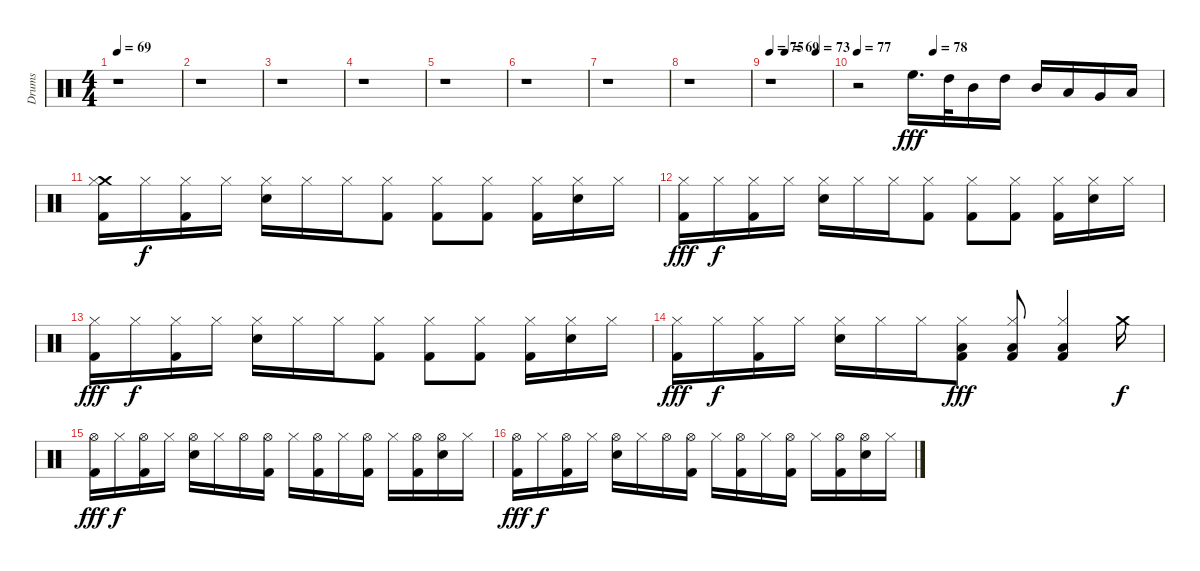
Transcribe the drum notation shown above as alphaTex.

\track ("Drums" "Drums") {instrument percussion}
\staff {score}
\articulation defaults
\ts (4 4)
\tempo 69
\clef neutral
\ks c
r.1{dy f} |
r.1 |
r.1 |
r.1 |
r.1 |
r.1 |
r.1 |
r.1 |
\tempo (69 0.25)
\tempo (73 0.75)
\tempo 76
\tempo 75
r.1 |
\tempo 77
\tempo (78 0.25)
r.2 "High Floor Tom (hit)".16{d dy fff} "High Tom (hit)".32 "Mid Tom (hit)".16 "High Tom (hit)".16 "Mid Tom (hit)".16 "Low Tom (hit)".16 "Very Low Tom (hit)".16 "Low Floor Tom (hit)".16 |
("Crash medium (hit)" "Hi-Hat (closed)" "Kick (hit) 2").16 "Hi-Hat (closed)".16{dy f} ("Hi-Hat (closed)" "Kick (hit) 2").16 "Hi-Hat (closed)".16 ("Hi-Hat (closed)" "Snare (hit) 2").16 "Hi-Hat (closed)".16 "Hi-Hat (closed)".16 ("Hi-Hat (closed)" "Kick (hit) 2").8 ("Hi-Hat (closed)" "Kick (hit) 2").8 ("Hi-Hat (closed)" "Kick (hit) 2").8 ("Hi-Hat (closed)" "Kick (hit) 2").16 ("Hi-Hat (closed)" "Snare (hit) 2").16 "Hi-Hat (closed)".16 |
("Hi-Hat (closed)" "Kick (hit) 2").16{dy fff} "Hi-Hat (closed)".16{dy f} ("Hi-Hat (closed)" "Kick (hit) 2").16 "Hi-Hat (closed)".16 ("Hi-Hat (closed)" "Snare (hit) 2").16 "Hi-Hat (closed)".16 "Hi-Hat (closed)".16 ("Hi-Hat (closed)" "Kick (hit) 2").8 ("Hi-Hat (closed)" "Kick (hit) 2").8 ("Hi-Hat (closed)" "Kick (hit) 2").8 ("Hi-Hat (closed)" "Kick (hit) 2").16 ("Hi-Hat (closed)" "Snare (hit) 2").16 "Hi-Hat (closed)".16 |
("Hi-Hat (closed)" "Kick (hit) 2").16{dy fff} "Hi-Hat (closed)".16{dy f} ("Hi-Hat (closed)" "Kick (hit) 2").16 "Hi-Hat (closed)".16 ("Hi-Hat (closed)" "Snare (hit) 2").16 "Hi-Hat (closed)".16 "Hi-Hat (closed)".16 ("Hi-Hat (closed)" "Kick (hit) 2").8 ("Hi-Hat (closed)" "Kick (hit) 2").8 ("Hi-Hat (closed)" "Kick (hit) 2").8 ("Hi-Hat (closed)" "Kick (hit) 2").16 ("Hi-Hat (closed)" "Snare (hit) 2").16 "Hi-Hat (closed)".16 |
("Hi-Hat (closed)" "Kick (hit) 2").16{dy fff} "Hi-Hat (closed)".16{dy f} ("Hi-Hat (closed)" "Kick (hit) 2").16 "Hi-Hat (closed)".16 ("Hi-Hat (closed)" "Snare (hit) 2").16 "Hi-Hat (closed)".16 "Hi-Hat (closed)".16 ("Hi-Hat (closed)" "Low Tom (hit)" "Kick (hit) 2").8{dy fff} ("Hi-Hat (closed)" "Low Tom (hit)" "Kick (hit) 2").8 ("Hi-Hat (closed)" "Low Tom (hit)" "Kick (hit) 2").4 "Crash medium (hit)".16{dy f} |
("Hi-Hat (open)" "Kick (hit) 2").16{dy fff} "Hi-Hat (closed)".16{dy f} ("Hi-Hat (open)" "Kick (hit) 2").16 "Hi-Hat (closed)".16 ("Hi-Hat (open)" "Snare (hit) 2").16 "Hi-Hat (closed)".16 "Hi-Hat (open)".16 ("Hi-Hat (open)" "Kick (hit) 2").16 "Hi-Hat (closed)".16 ("Hi-Hat (open)" "Kick (hit) 2").16 "Hi-Hat (closed)".16 ("Hi-Hat (open)" "Kick (hit) 2").16 "Hi-Hat (closed)".16 ("Hi-Hat (open)" "Kick (hit) 2").16 ("Hi-Hat (open)" "Snare (hit) 2").16 "Hi-Hat (closed)".16 |
("Hi-Hat (open)" "Kick (hit) 2").16{dy fff} "Hi-Hat (closed)".16{dy f} ("Hi-Hat (open)" "Kick (hit) 2").16 "Hi-Hat (closed)".16 ("Hi-Hat (open)" "Snare (hit) 2").16 "Hi-Hat (closed)".16 "Hi-Hat (open)".16 ("Hi-Hat (open)" "Kick (hit) 2").16 "Hi-Hat (closed)".16 ("Hi-Hat (open)" "Kick (hit) 2").16 "Hi-Hat (closed)".16 ("Hi-Hat (open)" "Kick (hit) 2").16 "Hi-Hat (closed)".16 ("Hi-Hat (open)" "Kick (hit) 2").16 ("Hi-Hat (open)" "Snare (hit) 2").16 "Hi-Hat (closed)".16
